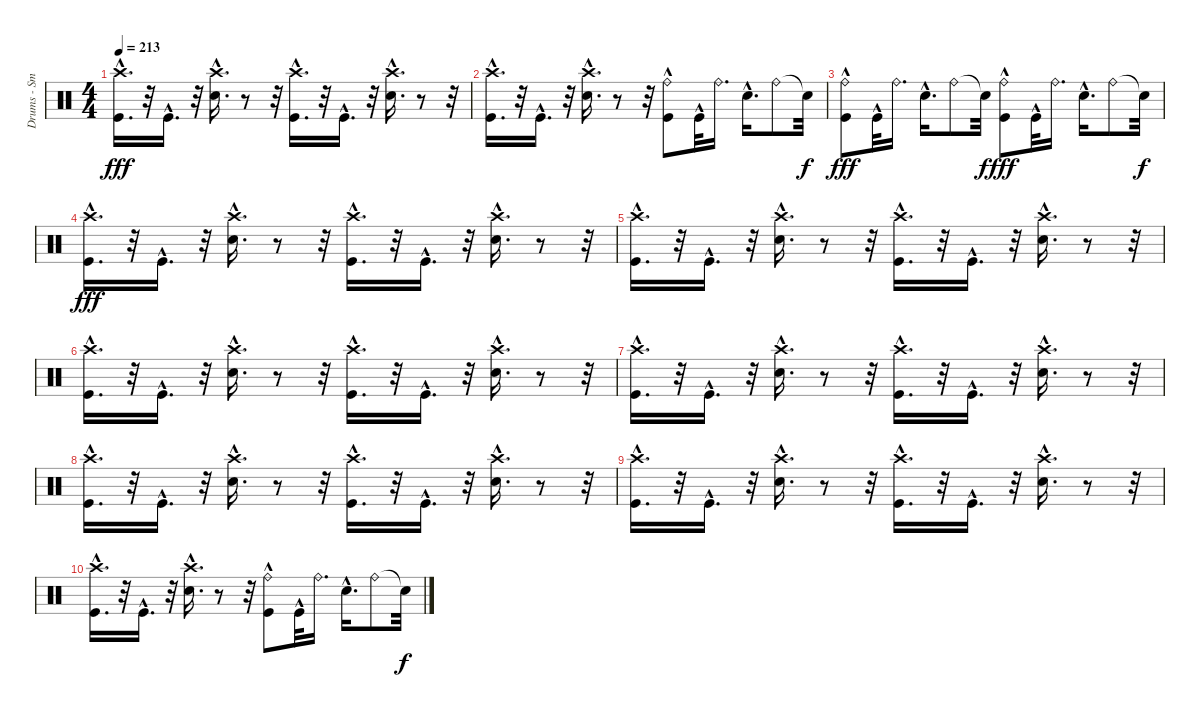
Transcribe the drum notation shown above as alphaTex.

\track ("Drums - Smelly" "Drums - Sm") {instrument percussion}
\staff {score}
\articulation defaults
\ts (4 4)
\tempo 213
\clef neutral
\ks c
("Crash high (hit)"{hac} "Kick (hit)"{hac}).16{d dy fff volume 6} r.32 "Kick (hit)"{hac}.16{d} r.32 ("Crash high (hit)"{hac} "Electric Snare (hit)"{hac}).16{d volume 6} r.8 r.32 ("Crash high (hit)"{hac} "Kick (hit)"{hac}).16{d volume 5} r.32 "Kick (hit)"{hac}.16{d volume 5} r.32 ("Electric Snare (hit)"{hac} "Crash high (hit)"{hac}).16{d} r.8 r.32 |
("Crash high (hit)"{hac} "Kick (hit)"{hac}).16{d volume 5} r.32 "Kick (hit)"{hac}.16{d volume 5} r.32 ("Crash high (hit)"{hac} "Electric Snare (hit)"{hac}).16{d} r.8 r.32 ("Kick (hit)"{hac} "Ride (bell)").8{volume 5} "Kick (hit)"{hac}.32{volume 5} "Ride (bell)".16{d} "Electric Snare (hit)"{hac}.16{d volume 4} "Ride (bell)".8 "Snare (hit)"{t}.32{dy f} |
("Ride (bell)" "Kick (hit)"{hac}).8{dy fff volume 4} "Kick (hit)"{hac}.32{volume 4} "Ride (bell)".16{d} "Electric Snare (hit)"{hac}.16{d} "Ride (bell)".8{volume 4} "Snare (hit)"{t}.32{dy f} ("Ride (bell)" "Kick (hit)"{hac}).8{dy fff} "Kick (hit)"{hac}.32{volume 4} "Ride (bell)".16{d} "Electric Snare (hit)"{hac}.16{d volume 4} "Ride (bell)".8 "Snare (hit)"{t}.32{dy f} |
("Crash high (hit)"{hac} "Kick (hit)"{hac}).16{d dy fff volume 4} r.32 "Kick (hit)"{hac}.16{d volume 4} r.32 ("Crash high (hit)"{hac} "Electric Snare (hit)"{hac}).16{d} r.8 r.32 ("Kick (hit)"{hac} "Crash high (hit)"{hac}).16{d volume 3} r.32 "Kick (hit)"{hac}.16{d} r.32 ("Electric Snare (hit)"{hac} "Crash high (hit)"{hac}).16{d volume 3} r.8 r.32 |
("Crash high (hit)"{hac} "Kick (hit)"{hac}).16{d volume 3} r.32 "Kick (hit)"{hac}.16{d volume 3} r.32 ("Crash high (hit)"{hac} "Electric Snare (hit)"{hac}).16{d volume 3} r.8 r.32 ("Crash high (hit)"{hac} "Kick (hit)"{hac}).16{d volume 3} r.32 "Kick (hit)"{hac}.16{d volume 3} r.32 ("Electric Snare (hit)"{hac} "Crash high (hit)"{hac}).16{d} r.8 r.32 |
("Crash high (hit)"{hac} "Kick (hit)"{hac}).16{d volume 2} r.32 "Kick (hit)"{hac}.16{d volume 2} r.32 ("Crash high (hit)"{hac} "Electric Snare (hit)"{hac}).16{d volume 2} r.8 r.32 ("Kick (hit)"{hac} "Crash high (hit)"{hac}).16{d volume 2} r.32 "Kick (hit)"{hac}.16{d volume 2} r.32 ("Electric Snare (hit)"{hac} "Crash high (hit)"{hac}).16{d} r.8 r.32 |
("Crash high (hit)"{hac} "Kick (hit)"{hac}).16{d volume 2} r.32 "Kick (hit)"{hac}.16{d} r.32 ("Crash high (hit)"{hac} "Electric Snare (hit)"{hac}).16{d volume 2} r.8 r.32 ("Crash high (hit)"{hac} "Kick (hit)"{hac}).16{d volume 2} r.32 "Kick (hit)"{hac}.16{d volume 1} r.32 ("Electric Snare (hit)"{hac} "Crash high (hit)"{hac}).16{d} r.8 r.32 |
("Crash high (hit)"{hac} "Kick (hit)"{hac}).16{d volume 1} r.32 "Kick (hit)"{hac}.16{d volume 1} r.32 ("Crash high (hit)"{hac} "Electric Snare (hit)"{hac}).16{d} r.8 r.32 ("Kick (hit)"{hac} "Crash high (hit)"{hac}).16{d volume 1} r.32 "Kick (hit)"{hac}.16{d volume 1} r.32 ("Electric Snare (hit)"{hac} "Crash high (hit)"{hac}).16{d volume 1} r.8 r.32 |
("Crash high (hit)"{hac} "Kick (hit)"{hac}).16{d volume 0} r.32 "Kick (hit)"{hac}.16{d volume 0} r.32 ("Crash high (hit)"{hac} "Electric Snare (hit)"{hac}).16{d} r.8 r.32 ("Crash high (hit)"{hac} "Kick (hit)"{hac}).16{d volume 0} r.32 "Kick (hit)"{hac}.16{d volume 0} r.32 ("Electric Snare (hit)"{hac} "Crash high (hit)"{hac}).16{d volume 0} r.8 r.32 |
("Crash high (hit)"{hac} "Kick (hit)"{hac}).16{d volume 0} r.32 "Kick (hit)"{hac}.16{d} r.32 ("Crash high (hit)"{hac} "Electric Snare (hit)"{hac}).16{d} r.8 r.32 ("Kick (hit)"{hac} "Ride (bell)").8 "Kick (hit)"{hac}.32 "Ride (bell)".16{d} "Electric Snare (hit)"{hac}.16{d} "Ride (bell)".8 "Snare (hit)"{t}.32{dy f}
